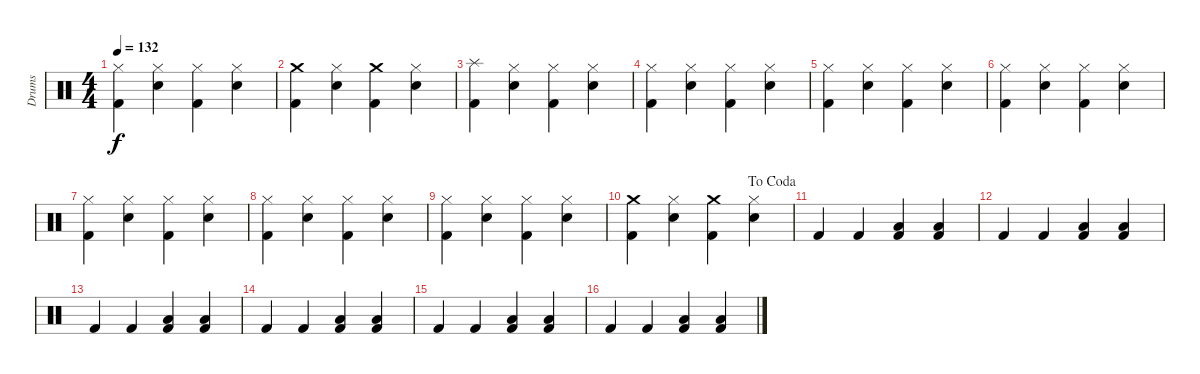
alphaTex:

\track ("Drums" "Drums") {instrument percussion}
\staff {score}
\articulation defaults
\ts (4 4)
\tempo 132
\clef neutral
\ks c
("Hi-Hat (closed)" "Kick (hit) 2").4{dy f} ("Hi-Hat (closed)" "Snare (hit) 2").4 ("Hi-Hat (closed)" "Kick (hit) 2").4 ("Hi-Hat (closed)" "Snare (hit) 2").4 |
("Crash medium (hit)" "Kick (hit) 2").4 ("Hi-Hat (closed)" "Snare (hit) 2").4 ("Crash medium (hit)" "Kick (hit) 2").4 ("Hi-Hat (closed)" "Snare (hit) 2").4 |
("Splash (hit)" "Kick (hit) 2").4 ("Hi-Hat (closed)" "Snare (hit) 2").4 ("Hi-Hat (closed)" "Kick (hit) 2").4 ("Hi-Hat (closed)" "Snare (hit) 2").4 |
("Hi-Hat (closed)" "Kick (hit) 2").4 ("Hi-Hat (closed)" "Snare (hit) 2").4 ("Hi-Hat (closed)" "Kick (hit) 2").4 ("Hi-Hat (closed)" "Snare (hit) 2").4 |
("Hi-Hat (closed)" "Kick (hit) 2").4 ("Hi-Hat (closed)" "Snare (hit) 2").4 ("Hi-Hat (closed)" "Kick (hit) 2").4 ("Hi-Hat (closed)" "Snare (hit) 2").4 |
("Hi-Hat (closed)" "Kick (hit) 2").4 ("Hi-Hat (closed)" "Snare (hit) 2").4 ("Hi-Hat (closed)" "Kick (hit) 2").4 ("Hi-Hat (closed)" "Snare (hit) 2").4 |
("Hi-Hat (closed)" "Kick (hit) 2").4 ("Hi-Hat (closed)" "Snare (hit) 2").4 ("Hi-Hat (closed)" "Kick (hit) 2").4 ("Hi-Hat (closed)" "Snare (hit) 2").4 |
("Hi-Hat (closed)" "Kick (hit) 2").4 ("Hi-Hat (closed)" "Snare (hit) 2").4 ("Hi-Hat (closed)" "Kick (hit) 2").4 ("Hi-Hat (closed)" "Snare (hit) 2").4 |
("Hi-Hat (closed)" "Kick (hit) 2").4 ("Hi-Hat (closed)" "Snare (hit) 2").4 ("Hi-Hat (closed)" "Kick (hit) 2").4 ("Hi-Hat (closed)" "Snare (hit) 2").4 |
\jump dacoda
("Crash medium (hit)" "Kick (hit) 2").4 ("Hi-Hat (closed)" "Snare (hit) 2").4 ("Crash medium (hit)" "Kick (hit) 2").4 ("Hi-Hat (closed)" "Snare (hit) 2").4 |
"Kick (hit) 2".4 "Kick (hit) 2".4 ("Low Tom (hit)" "Kick (hit) 2").4 ("Low Floor Tom (hit)" "Kick (hit) 2").4 |
"Kick (hit) 2".4 "Kick (hit) 2".4 ("Low Tom (hit)" "Kick (hit) 2").4 ("Low Floor Tom (hit)" "Kick (hit) 2").4 |
"Kick (hit) 2".4 "Kick (hit) 2".4 ("Low Tom (hit)" "Kick (hit) 2").4 ("Low Floor Tom (hit)" "Kick (hit) 2").4 |
"Kick (hit) 2".4 "Kick (hit) 2".4 ("Low Tom (hit)" "Kick (hit) 2").4 ("Low Floor Tom (hit)" "Kick (hit) 2").4 |
"Kick (hit) 2".4 "Kick (hit) 2".4 ("Low Tom (hit)" "Kick (hit) 2").4 ("Low Floor Tom (hit)" "Kick (hit) 2").4 |
"Kick (hit) 2".4 "Kick (hit) 2".4 ("Low Tom (hit)" "Kick (hit) 2").4 ("Low Floor Tom (hit)" "Kick (hit) 2").4
